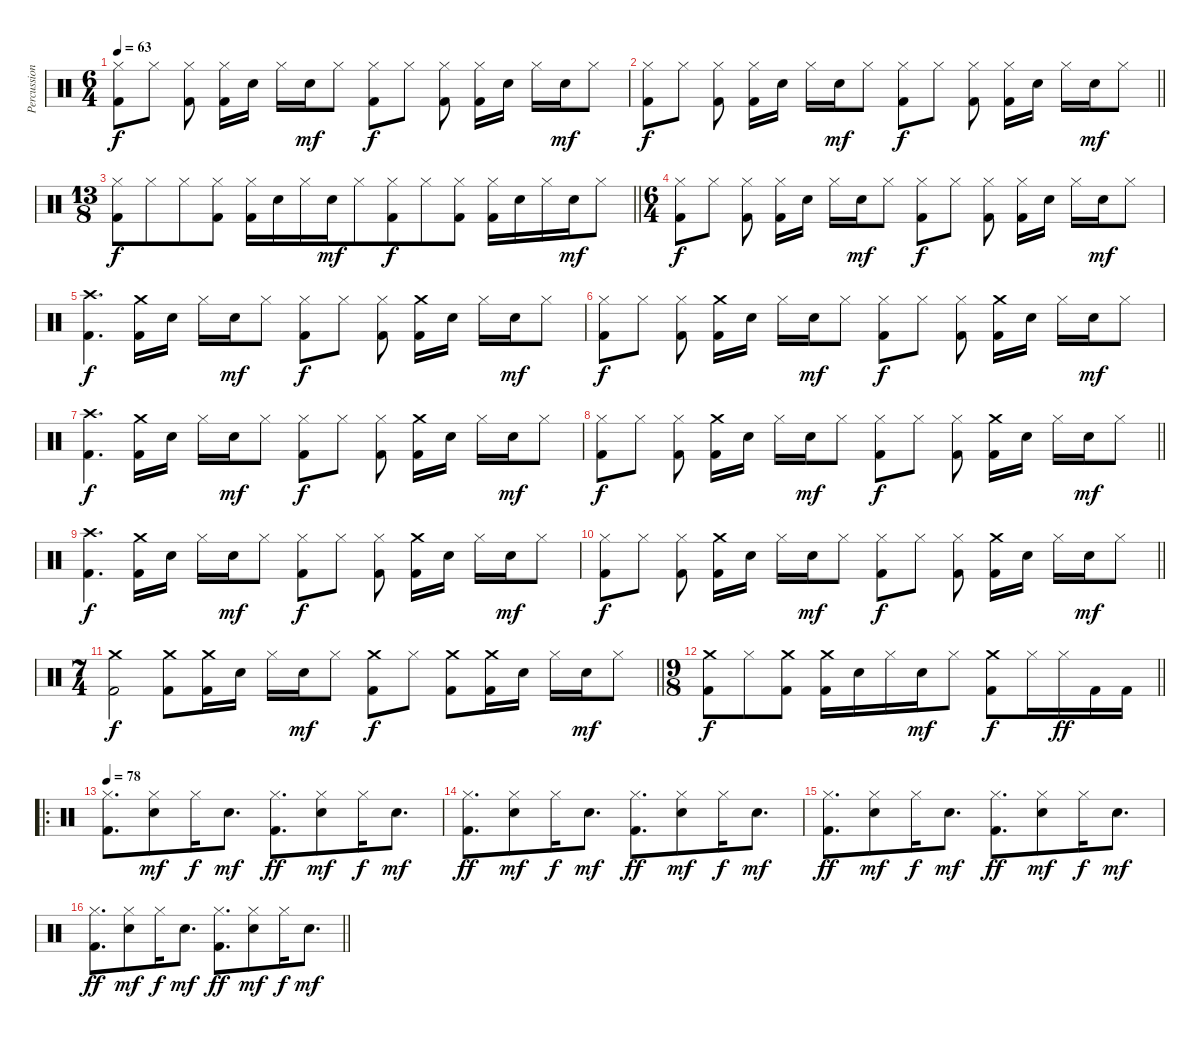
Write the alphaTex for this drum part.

\track ("Percussion" "Percussion") {instrument percussion}
\staff {score}
\articulation defaults
\ts (6 4)
\tempo 63
\clef neutral
\ks c
("Hi-Hat (closed)" "Kick (hit) 2").8{dy f} "Hi-Hat (closed)".8 ("Hi-Hat (closed)" "Kick (hit) 2").8{beam split} ("Hi-Hat (closed)" "Kick (hit) 2").16 "Electric Snare (hit)".16 "Hi-Hat (closed)".16 "Electric Snare (hit)".16{dy mf} "Hi-Hat (closed)".8 ("Hi-Hat (closed)" "Kick (hit) 2").8{dy f} "Hi-Hat (closed)".8 ("Hi-Hat (closed)" "Kick (hit) 2").8{beam split} ("Hi-Hat (closed)" "Kick (hit) 2").16 "Electric Snare (hit)".16 "Hi-Hat (closed)".16 "Electric Snare (hit)".16{dy mf} "Hi-Hat (closed)".8 |
\barLineRight lightlight
("Hi-Hat (closed)" "Kick (hit) 2").8{dy f} "Hi-Hat (closed)".8 ("Hi-Hat (closed)" "Kick (hit) 2").8{beam split} ("Hi-Hat (closed)" "Kick (hit) 2").16 "Electric Snare (hit)".16 "Hi-Hat (closed)".16 "Electric Snare (hit)".16{dy mf} "Hi-Hat (closed)".8 ("Hi-Hat (closed)" "Kick (hit) 2").8{dy f} "Hi-Hat (closed)".8 ("Hi-Hat (closed)" "Kick (hit) 2").8{beam split} ("Hi-Hat (closed)" "Kick (hit) 2").16 "Electric Snare (hit)".16 "Hi-Hat (closed)".16 "Electric Snare (hit)".16{dy mf} "Hi-Hat (closed)".8 |
\ts (13 8)
\barLineRight lightlight
("Hi-Hat (closed)" "Kick (hit) 2").8{dy f beam merge} "Hi-Hat (closed)".8{beam merge} "Hi-Hat (closed)".8{beam merge} ("Hi-Hat (closed)" "Kick (hit) 2").8{beam split} ("Hi-Hat (closed)" "Kick (hit) 2").16 "Electric Snare (hit)".16{beam merge} "Hi-Hat (closed)".16 "Electric Snare (hit)".16{dy mf beam merge} "Hi-Hat (closed)".8 ("Hi-Hat (closed)" "Kick (hit) 2").8{dy f beam merge} "Hi-Hat (closed)".8{beam merge} ("Hi-Hat (closed)" "Kick (hit) 2").8{beam split} ("Hi-Hat (closed)" "Kick (hit) 2").16 "Electric Snare (hit)".16{beam merge} "Hi-Hat (closed)".16 "Electric Snare (hit)".16{dy mf beam merge} "Hi-Hat (closed)".8 |
\ts (6 4)
("Hi-Hat (closed)" "Kick (hit) 2").8{dy f} "Hi-Hat (closed)".8 ("Hi-Hat (closed)" "Kick (hit) 2").8{beam split} ("Hi-Hat (closed)" "Kick (hit) 2").16 "Electric Snare (hit)".16 "Hi-Hat (closed)".16 "Electric Snare (hit)".16{dy mf} "Hi-Hat (closed)".8 ("Hi-Hat (closed)" "Kick (hit) 2").8{dy f} "Hi-Hat (closed)".8 ("Hi-Hat (closed)" "Kick (hit) 2").8{beam split} ("Hi-Hat (closed)" "Kick (hit) 2").16 "Electric Snare (hit)".16 "Hi-Hat (closed)".16 "Electric Snare (hit)".16{dy mf} "Hi-Hat (closed)".8 |
("Crash high (hit)" "Kick (hit) 2").4{d dy f} ("Crash medium (hit)" "Kick (hit) 2").16 "Electric Snare (hit)".16 "Hi-Hat (closed)".16 "Electric Snare (hit)".16{dy mf} "Hi-Hat (closed)".8 ("Hi-Hat (closed)" "Kick (hit) 2").8{dy f} "Hi-Hat (closed)".8 ("Hi-Hat (closed)" "Kick (hit) 2").8{beam split} ("Crash medium (hit)" "Kick (hit) 2").16 "Electric Snare (hit)".16 "Hi-Hat (closed)".16 "Electric Snare (hit)".16{dy mf} "Hi-Hat (closed)".8 |
("Hi-Hat (closed)" "Kick (hit) 2").8{dy f} "Hi-Hat (closed)".8 ("Hi-Hat (closed)" "Kick (hit) 2").8{beam split} ("Crash medium (hit)" "Kick (hit) 2").16 "Electric Snare (hit)".16 "Hi-Hat (closed)".16 "Electric Snare (hit)".16{dy mf} "Hi-Hat (closed)".8 ("Hi-Hat (closed)" "Kick (hit) 2").8{dy f} "Hi-Hat (closed)".8 ("Hi-Hat (closed)" "Kick (hit) 2").8{beam split} ("Crash medium (hit)" "Kick (hit) 2").16 "Electric Snare (hit)".16 "Hi-Hat (closed)".16 "Electric Snare (hit)".16{dy mf} "Hi-Hat (closed)".8 |
("Crash high (hit)" "Kick (hit) 2").4{d dy f} ("Crash medium (hit)" "Kick (hit) 2").16 "Electric Snare (hit)".16 "Hi-Hat (closed)".16 "Electric Snare (hit)".16{dy mf} "Hi-Hat (closed)".8 ("Hi-Hat (closed)" "Kick (hit) 2").8{dy f} "Hi-Hat (closed)".8 ("Hi-Hat (closed)" "Kick (hit) 2").8{beam split} ("Crash medium (hit)" "Kick (hit) 2").16 "Electric Snare (hit)".16 "Hi-Hat (closed)".16 "Electric Snare (hit)".16{dy mf} "Hi-Hat (closed)".8 |
\barLineRight lightlight
("Hi-Hat (closed)" "Kick (hit) 2").8{dy f} "Hi-Hat (closed)".8 ("Hi-Hat (closed)" "Kick (hit) 2").8{beam split} ("Crash medium (hit)" "Kick (hit) 2").16 "Electric Snare (hit)".16 "Hi-Hat (closed)".16 "Electric Snare (hit)".16{dy mf} "Hi-Hat (closed)".8 ("Hi-Hat (closed)" "Kick (hit) 2").8{dy f} "Hi-Hat (closed)".8 ("Hi-Hat (closed)" "Kick (hit) 2").8{beam split} ("Crash medium (hit)" "Kick (hit) 2").16 "Electric Snare (hit)".16 "Hi-Hat (closed)".16 "Electric Snare (hit)".16{dy mf} "Hi-Hat (closed)".8 |
("Crash high (hit)" "Kick (hit) 2").4{d dy f} ("Crash medium (hit)" "Kick (hit) 2").16 "Electric Snare (hit)".16 "Hi-Hat (closed)".16 "Electric Snare (hit)".16{dy mf} "Hi-Hat (closed)".8 ("Hi-Hat (closed)" "Kick (hit) 2").8{dy f} "Hi-Hat (closed)".8 ("Hi-Hat (closed)" "Kick (hit) 2").8{beam split} ("Crash medium (hit)" "Kick (hit) 2").16 "Electric Snare (hit)".16 "Hi-Hat (closed)".16 "Electric Snare (hit)".16{dy mf} "Hi-Hat (closed)".8 |
\barLineRight lightlight
("Hi-Hat (closed)" "Kick (hit) 2").8{dy f} "Hi-Hat (closed)".8 ("Hi-Hat (closed)" "Kick (hit) 2").8{beam split} ("Crash medium (hit)" "Kick (hit) 2").16 "Electric Snare (hit)".16 "Hi-Hat (closed)".16 "Electric Snare (hit)".16{dy mf} "Hi-Hat (closed)".8 ("Hi-Hat (closed)" "Kick (hit) 2").8{dy f} "Hi-Hat (closed)".8 ("Hi-Hat (closed)" "Kick (hit) 2").8{beam split} ("Crash medium (hit)" "Kick (hit) 2").16 "Electric Snare (hit)".16 "Hi-Hat (closed)".16 "Electric Snare (hit)".16{dy mf} "Hi-Hat (closed)".8 |
\ts (7 4)
\barLineRight lightlight
("Crash medium (hit)" "Kick (hit) 2").2{dy f} ("Crash medium (hit)" "Kick (hit) 2").8 ("Crash medium (hit)" "Kick (hit) 2").16 "Electric Snare (hit)".16 "Hi-Hat (closed)".16 "Electric Snare (hit)".16{dy mf} "Hi-Hat (closed)".8 ("Crash medium (hit)" "Kick (hit) 2").8{dy f} "Hi-Hat (closed)".8 ("Crash medium (hit)" "Kick (hit) 2").8 ("Crash medium (hit)" "Kick (hit) 2").16 "Electric Snare (hit)".16 "Hi-Hat (closed)".16 "Electric Snare (hit)".16{dy mf} "Hi-Hat (closed)".8 |
\ts (9 8)
\barLineRight lightlight
("Crash medium (hit)" "Kick (hit) 2").8{dy f} "Hi-Hat (closed)".8 ("Crash medium (hit)" "Kick (hit) 2").8 ("Crash medium (hit)" "Kick (hit) 2").16 "Electric Snare (hit)".16 "Hi-Hat (closed)".16 "Electric Snare (hit)".16{dy mf} "Hi-Hat (closed)".8 ("Crash medium (hit)" "Kick (hit) 2").8{dy f} "Hi-Hat (closed)".16 "Hi-Hat (closed)".16{dy ff} "Kick (hit) 2".16 "Kick (hit) 2".16 |
\ro
\tempo 78
("Hi-Hat (closed)" "Kick (hit) 2").8{d} ("Hi-Hat (closed)" "Electric Snare (hit)").8{dy mf} "Hi-Hat (closed)".16{dy f beam merge} "Electric Snare (hit)".8{d dy mf beam split} ("Hi-Hat (closed)" "Kick (hit) 2").8{d dy ff beam merge} ("Hi-Hat (closed)" "Electric Snare (hit)").8{dy mf} "Hi-Hat (closed)".16{dy f} "Electric Snare (hit)".8{d dy mf} |
("Hi-Hat (closed)" "Kick (hit) 2").8{d dy ff} ("Hi-Hat (closed)" "Electric Snare (hit)").8{dy mf} "Hi-Hat (closed)".16{dy f beam merge} "Electric Snare (hit)".8{d dy mf beam split} ("Hi-Hat (closed)" "Kick (hit) 2").8{d dy ff beam merge} ("Hi-Hat (closed)" "Electric Snare (hit)").8{dy mf} "Hi-Hat (closed)".16{dy f} "Electric Snare (hit)".8{d dy mf} |
("Hi-Hat (closed)" "Kick (hit) 2").8{d dy ff} ("Hi-Hat (closed)" "Electric Snare (hit)").8{dy mf} "Hi-Hat (closed)".16{dy f beam merge} "Electric Snare (hit)".8{d dy mf beam split} ("Hi-Hat (closed)" "Kick (hit) 2").8{d dy ff beam merge} ("Hi-Hat (closed)" "Electric Snare (hit)").8{dy mf} "Hi-Hat (closed)".16{dy f} "Electric Snare (hit)".8{d dy mf} |
\barLineRight lightlight
("Hi-Hat (closed)" "Kick (hit) 2").8{d dy ff} ("Hi-Hat (closed)" "Electric Snare (hit)").8{dy mf} "Hi-Hat (closed)".16{dy f beam merge} "Electric Snare (hit)".8{d dy mf beam split} ("Hi-Hat (closed)" "Kick (hit) 2").8{d dy ff beam merge} ("Hi-Hat (closed)" "Electric Snare (hit)").8{dy mf} "Hi-Hat (closed)".16{dy f} "Electric Snare (hit)".8{d dy mf}
